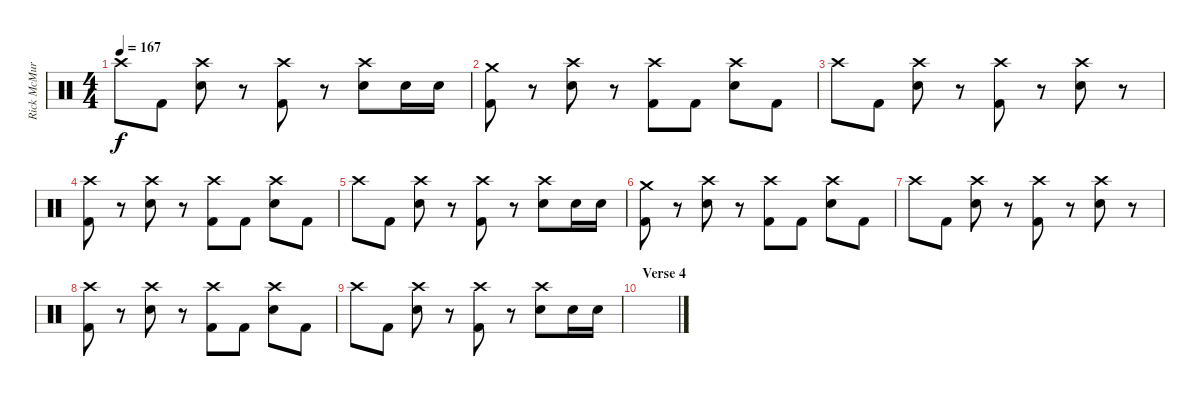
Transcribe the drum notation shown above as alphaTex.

\track ("Rick McMurray" "Rick McMur") {instrument percussion}
\staff {score}
\articulation defaults
\ts (4 4)
\tempo 167
\clef neutral
\ks c "Crash high (hit)".8{dy f} "Kick (hit) 2".8
("Crash high (hit)" "Electric Snare (hit)").8 r.8 ("Crash high (hit)" "Kick (hit) 2").8 r.8 ("Crash high (hit)" "Electric Snare (hit)").8 "Electric Snare (hit)".16 "Electric Snare (hit)".16 |
("Crash medium (hit)" "Kick (hit) 2").8{volume 12} r.8 ("Crash high (hit)" "Electric Snare (hit)").8 r.8 ("Crash high (hit)" "Kick (hit) 2").8 "Kick (hit) 2".8 ("Crash high (hit)" "Electric Snare (hit)").8 "Kick (hit) 2".8 |
"Crash high (hit)".8 "Kick (hit) 2".8 ("Crash high (hit)" "Electric Snare (hit)").8 r.8 ("Crash high (hit)" "Kick (hit) 2").8 r.8 ("Crash high (hit)" "Electric Snare (hit)").8 r.8 |
("Crash high (hit)" "Kick (hit) 2").8 r.8 ("Crash high (hit)" "Electric Snare (hit)").8 r.8 ("Crash high (hit)" "Kick (hit) 2").8 "Kick (hit) 2".8 ("Crash high (hit)" "Electric Snare (hit)").8 "Kick (hit) 2".8 |
"Crash high (hit)".8 "Kick (hit) 2".8 ("Crash high (hit)" "Electric Snare (hit)").8 r.8 ("Crash high (hit)" "Kick (hit) 2").8 r.8 ("Crash high (hit)" "Electric Snare (hit)").8 "Electric Snare (hit)".16 "Electric Snare (hit)".16 |
("Crash medium (hit)" "Kick (hit) 2").8 r.8 ("Crash high (hit)" "Electric Snare (hit)").8 r.8 ("Crash high (hit)" "Kick (hit) 2").8 "Kick (hit) 2".8 ("Crash high (hit)" "Electric Snare (hit)").8 "Kick (hit) 2".8 |
"Crash high (hit)".8 "Kick (hit) 2".8 ("Crash high (hit)" "Electric Snare (hit)").8 r.8 ("Crash high (hit)" "Kick (hit) 2").8 r.8 ("Crash high (hit)" "Electric Snare (hit)").8 r.8 |
("Crash high (hit)" "Kick (hit) 2").8 r.8 ("Crash high (hit)" "Electric Snare (hit)").8 r.8 ("Crash high (hit)" "Kick (hit) 2").8 "Kick (hit) 2".8 ("Crash high (hit)" "Electric Snare (hit)").8 "Kick (hit) 2".8 |
"Crash high (hit)".8 "Kick (hit) 2".8 ("Crash high (hit)" "Electric Snare (hit)").8 r.8 ("Crash high (hit)" "Kick (hit) 2").8 r.8 ("Crash high (hit)" "Electric Snare (hit)").8 "Electric Snare (hit)".16 "Electric Snare (hit)".16 |
\section ("" "Verse 4")
